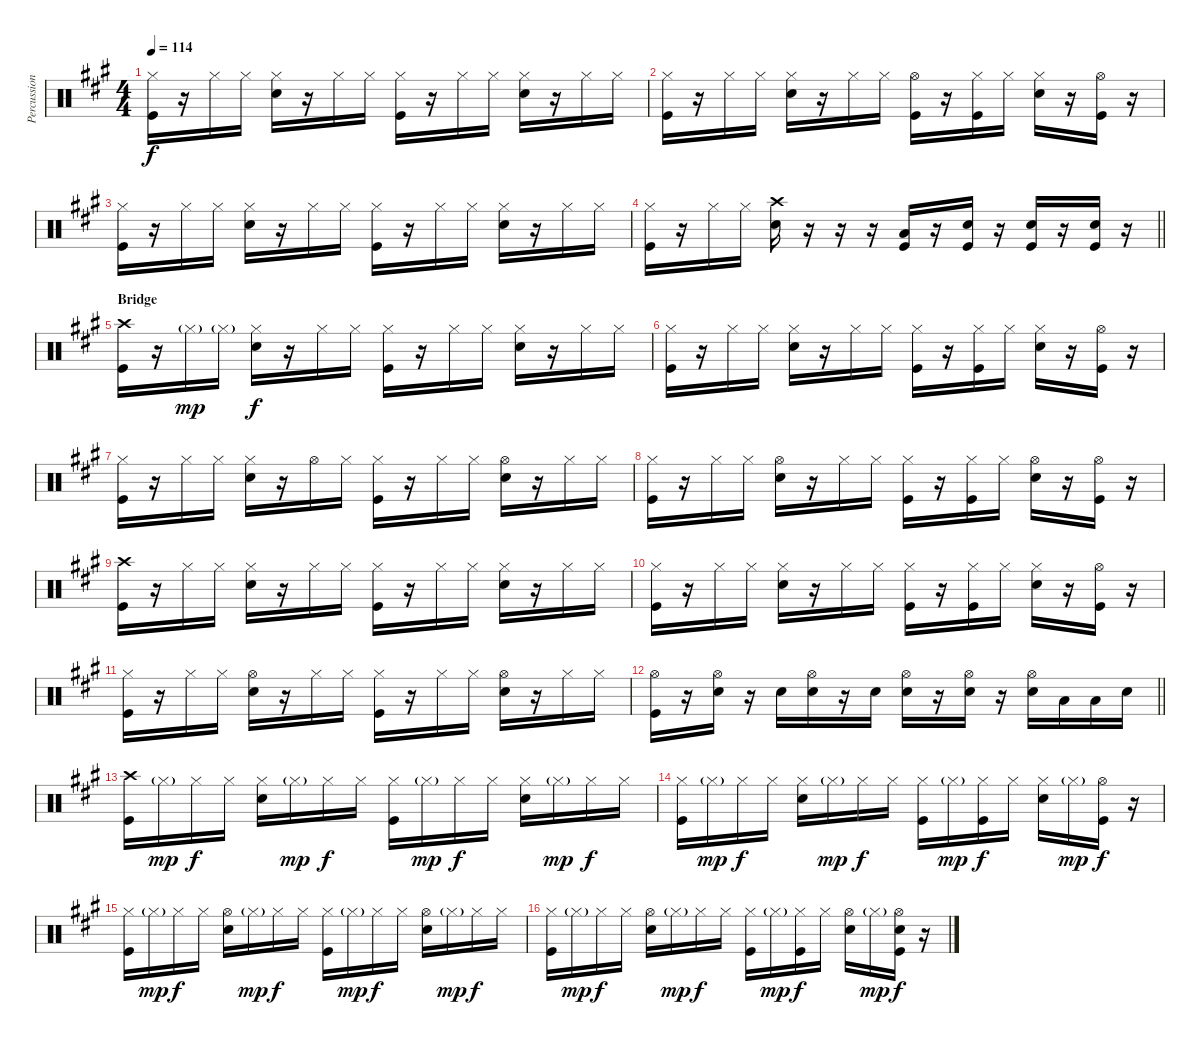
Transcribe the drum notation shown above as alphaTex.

\track ("Percussion" "Percussion") {instrument percussion}
\staff {score}
\articulation defaults
\ts (4 4)
\tempo 114
\clef neutral
\ks a
("Hi-Hat (closed)" "Kick (hit)").16{dy f} r.16 "Hi-Hat (closed)".16 "Hi-Hat (closed)".16 ("Hi-Hat (closed)" "Snare (hit) 2").16 r.16 "Hi-Hat (closed)".16 "Hi-Hat (closed)".16 ("Hi-Hat (closed)" "Kick (hit)").16 r.16 "Hi-Hat (closed)".16 "Hi-Hat (closed)".16 ("Hi-Hat (closed)" "Snare (hit) 2").16 r.16 "Hi-Hat (closed)".16 "Hi-Hat (closed)".16 |
("Hi-Hat (closed)" "Kick (hit)").16 r.16 "Hi-Hat (closed)".16 "Hi-Hat (closed)".16 ("Hi-Hat (closed)" "Snare (hit) 2").16 r.16 "Hi-Hat (closed)".16 "Hi-Hat (closed)".16 ("Hi-Hat (open)" "Kick (hit)").16 r.16 ("Hi-Hat (closed)" "Kick (hit)").16 "Hi-Hat (closed)".16 ("Hi-Hat (closed)" "Snare (hit) 2").16 r.16 ("Hi-Hat (open)" "Kick (hit)").16 r.16 |
("Hi-Hat (closed)" "Kick (hit)").16 r.16 "Hi-Hat (closed)".16 "Hi-Hat (closed)".16 ("Hi-Hat (closed)" "Snare (hit) 2").16 r.16 "Hi-Hat (closed)".16 "Hi-Hat (closed)".16 ("Hi-Hat (closed)" "Kick (hit)").16 r.16 "Hi-Hat (closed)".16 "Hi-Hat (closed)".16 ("Hi-Hat (closed)" "Snare (hit) 2").16 r.16 "Hi-Hat (closed)".16 "Hi-Hat (closed)".16 |
\barLineRight lightlight
("Hi-Hat (closed)" "Kick (hit)").16 r.16 "Hi-Hat (closed)".16 "Hi-Hat (closed)".16 ("Crash high (hit)" "Snare (hit) 2").16 r.16 r.16 r.16 ("Low Tom (hit)" "Kick (hit)").16 r.16 ("Snare (hit) 2" "Kick (hit)").16 r.16 ("Snare (hit) 2" "Kick (hit)").16 r.16 ("Snare (hit) 2" "Kick (hit)").16 r.16 |
\section ("" "Bridge")
("Crash high (hit)" "Kick (hit)").16 r.16 "Hi-Hat (closed)"{g}.16{dy mp} "Hi-Hat (closed)"{g}.16 ("Hi-Hat (closed)" "Snare (hit) 2").16{dy f} r.16 "Hi-Hat (closed)".16 "Hi-Hat (closed)".16 ("Hi-Hat (closed)" "Kick (hit)").16 r.16 "Hi-Hat (closed)".16 "Hi-Hat (closed)".16 ("Hi-Hat (closed)" "Snare (hit) 2").16 r.16 "Hi-Hat (closed)".16 "Hi-Hat (closed)".16 |
("Hi-Hat (closed)" "Kick (hit)").16 r.16 "Hi-Hat (closed)".16 "Hi-Hat (closed)".16 ("Hi-Hat (closed)" "Snare (hit) 2").16 r.16 "Hi-Hat (closed)".16 "Hi-Hat (closed)".16 ("Hi-Hat (closed)" "Kick (hit)").16 r.16 ("Hi-Hat (closed)" "Kick (hit)").16 "Hi-Hat (closed)".16 ("Hi-Hat (closed)" "Snare (hit) 2").16 r.16 ("Hi-Hat (open)" "Kick (hit)").16 r.16 |
("Hi-Hat (closed)" "Kick (hit)").16 r.16 "Hi-Hat (closed)".16 "Hi-Hat (closed)".16 ("Hi-Hat (closed)" "Snare (hit) 2").16 r.16 "Hi-Hat (open)".16 "Hi-Hat (closed)".16 ("Hi-Hat (closed)" "Kick (hit)").16 r.16 "Hi-Hat (closed)".16 "Hi-Hat (closed)".16 ("Hi-Hat (open)" "Snare (hit) 2").16 r.16 "Hi-Hat (closed)".16 "Hi-Hat (closed)".16 |
("Hi-Hat (closed)" "Kick (hit)").16 r.16 "Hi-Hat (closed)".16 "Hi-Hat (closed)".16 ("Hi-Hat (open)" "Snare (hit) 2").16 r.16 "Hi-Hat (closed)".16 "Hi-Hat (closed)".16 ("Hi-Hat (closed)" "Kick (hit)").16 r.16 ("Hi-Hat (closed)" "Kick (hit)").16 "Hi-Hat (closed)".16 ("Hi-Hat (open)" "Snare (hit) 2").16 r.16 ("Hi-Hat (open)" "Kick (hit)").16 r.16 |
("Crash high (hit)" "Kick (hit)").16 r.16 "Hi-Hat (closed)".16 "Hi-Hat (closed)".16 ("Hi-Hat (closed)" "Snare (hit) 2").16 r.16 "Hi-Hat (closed)".16 "Hi-Hat (closed)".16 ("Hi-Hat (closed)" "Kick (hit)").16 r.16 "Hi-Hat (closed)".16 "Hi-Hat (closed)".16 ("Hi-Hat (closed)" "Snare (hit) 2").16 r.16 "Hi-Hat (closed)".16 "Hi-Hat (closed)".16 |
("Hi-Hat (closed)" "Kick (hit)").16 r.16 "Hi-Hat (closed)".16 "Hi-Hat (closed)".16 ("Hi-Hat (closed)" "Snare (hit) 2").16 r.16 "Hi-Hat (closed)".16 "Hi-Hat (closed)".16 ("Hi-Hat (closed)" "Kick (hit)").16 r.16 ("Hi-Hat (closed)" "Kick (hit)").16 "Hi-Hat (closed)".16 ("Hi-Hat (closed)" "Snare (hit) 2").16 r.16 ("Hi-Hat (open)" "Kick (hit)").16 r.16 |
("Hi-Hat (closed)" "Kick (hit)").16 r.16 "Hi-Hat (closed)".16 "Hi-Hat (closed)".16 ("Hi-Hat (open)" "Snare (hit) 2").16 r.16 "Hi-Hat (closed)".16 "Hi-Hat (closed)".16 ("Hi-Hat (closed)" "Kick (hit)").16 r.16 "Hi-Hat (closed)".16 "Hi-Hat (closed)".16 ("Hi-Hat (open)" "Snare (hit) 2").16 r.16 "Hi-Hat (closed)".16 "Hi-Hat (closed)".16 |
\barLineRight lightlight
("Hi-Hat (open)" "Kick (hit)").16 r.16 ("Hi-Hat (open)" "Snare (hit) 2").16 r.16 "Snare (hit) 2".16 ("Hi-Hat (open)" "Snare (hit) 2").16 r.16 "Snare (hit) 2".16 ("Hi-Hat (open)" "Snare (hit) 2").16 r.16 ("Hi-Hat (open)" "Snare (hit) 2").16 r.16 ("Hi-Hat (open)" "Snare (hit) 2").16 "Low Tom (hit)".16 "Low Tom (hit)".16 "Snare (hit) 2".16 |
("Crash high (hit)" "Kick (hit)").16 "Hi-Hat (closed)"{g}.16{dy mp} "Hi-Hat (closed)".16{dy f} "Hi-Hat (closed)".16 ("Hi-Hat (closed)" "Snare (hit) 2").16 "Hi-Hat (closed)"{g}.16{dy mp} "Hi-Hat (closed)".16{dy f} "Hi-Hat (closed)".16 ("Hi-Hat (closed)" "Kick (hit)").16 "Hi-Hat (closed)"{g}.16{dy mp} "Hi-Hat (closed)".16{dy f} "Hi-Hat (closed)".16 ("Hi-Hat (closed)" "Snare (hit) 2").16 "Hi-Hat (closed)"{g}.16{dy mp} "Hi-Hat (closed)".16{dy f} "Hi-Hat (closed)".16 |
("Hi-Hat (closed)" "Kick (hit)").16 "Hi-Hat (closed)"{g}.16{dy mp} "Hi-Hat (closed)".16{dy f} "Hi-Hat (closed)".16 ("Hi-Hat (closed)" "Snare (hit) 2").16 "Hi-Hat (closed)"{g}.16{dy mp} "Hi-Hat (closed)".16{dy f} "Hi-Hat (closed)".16 ("Hi-Hat (closed)" "Kick (hit)").16 "Hi-Hat (closed)"{g}.16{dy mp} ("Hi-Hat (closed)" "Kick (hit)").16{dy f} "Hi-Hat (closed)".16 ("Hi-Hat (closed)" "Snare (hit) 2").16 "Hi-Hat (closed)"{g}.16{dy mp} ("Hi-Hat (open)" "Kick (hit)").16{dy f} r.16 |
("Hi-Hat (closed)" "Kick (hit)").16 "Hi-Hat (closed)"{g}.16{dy mp} "Hi-Hat (closed)".16{dy f} "Hi-Hat (closed)".16 ("Hi-Hat (open)" "Snare (hit) 2").16 "Hi-Hat (closed)"{g}.16{dy mp} "Hi-Hat (closed)".16{dy f} "Hi-Hat (closed)".16 ("Hi-Hat (closed)" "Kick (hit)").16 "Hi-Hat (closed)"{g}.16{dy mp} "Hi-Hat (closed)".16{dy f} "Hi-Hat (closed)".16 ("Hi-Hat (open)" "Snare (hit) 2").16 "Hi-Hat (closed)"{g}.16{dy mp} "Hi-Hat (closed)".16{dy f} "Hi-Hat (closed)".16 |
("Hi-Hat (closed)" "Kick (hit)").16 "Hi-Hat (closed)"{g}.16{dy mp} "Hi-Hat (closed)".16{dy f} "Hi-Hat (closed)".16 ("Hi-Hat (open)" "Snare (hit) 2").16 "Hi-Hat (closed)"{g}.16{dy mp} "Hi-Hat (closed)".16{dy f} "Hi-Hat (closed)".16 ("Hi-Hat (closed)" "Kick (hit)").16 "Hi-Hat (closed)"{g}.16{dy mp} ("Hi-Hat (closed)" "Kick (hit)").16{dy f} "Hi-Hat (closed)".16 ("Hi-Hat (open)" "Snare (hit) 2").16 "Hi-Hat (closed)"{g}.16{dy mp} ("Hi-Hat (open)" "Snare (hit) 2" "Kick (hit)").16{dy f} r.16
